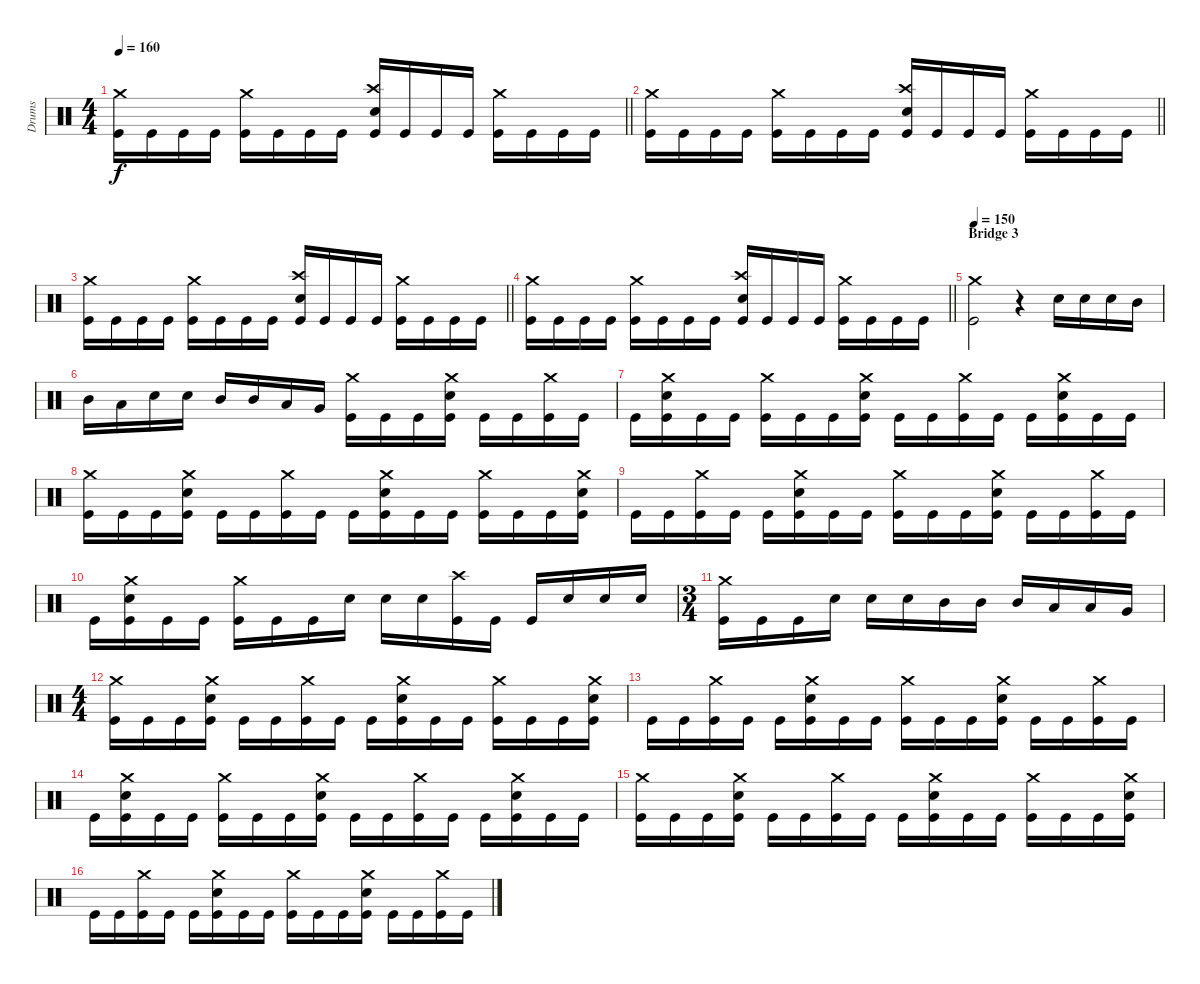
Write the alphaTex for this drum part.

\track ("Drums" "Drums") {instrument percussion}
\staff {score}
\articulation defaults
\ts (4 4)
\tempo 160
\clef neutral
\barLineRight lightlight
\ks c
("Crash medium (hit)" "Kick (hit)").16{dy f} "Kick (hit)".16 "Kick (hit)".16 "Kick (hit)".16 ("Crash medium (hit)" "Kick (hit)").16 "Kick (hit)".16 "Kick (hit)".16 "Kick (hit)".16 ("Crash high (hit)" "Snare (hit) 2" "Kick (hit)").16 "Kick (hit)".16 "Kick (hit)".16 "Kick (hit)".16 ("Crash medium (hit)" "Kick (hit)").16 "Kick (hit)".16 "Kick (hit)".16 "Kick (hit)".16 |
\barLineRight lightlight
("Crash medium (hit)" "Kick (hit)").16 "Kick (hit)".16 "Kick (hit)".16 "Kick (hit)".16 ("Crash medium (hit)" "Kick (hit)").16 "Kick (hit)".16 "Kick (hit)".16 "Kick (hit)".16 ("Crash high (hit)" "Snare (hit) 2" "Kick (hit)").16 "Kick (hit)".16 "Kick (hit)".16 "Kick (hit)".16 ("Crash medium (hit)" "Kick (hit)").16 "Kick (hit)".16 "Kick (hit)".16 "Kick (hit)".16 |
\barLineRight lightlight
("Crash medium (hit)" "Kick (hit)").16 "Kick (hit)".16 "Kick (hit)".16 "Kick (hit)".16 ("Crash medium (hit)" "Kick (hit)").16 "Kick (hit)".16 "Kick (hit)".16 "Kick (hit)".16 ("Crash high (hit)" "Snare (hit) 2" "Kick (hit)").16 "Kick (hit)".16 "Kick (hit)".16 "Kick (hit)".16 ("Crash medium (hit)" "Kick (hit)").16 "Kick (hit)".16 "Kick (hit)".16 "Kick (hit)".16 |
\barLineRight lightlight
("Crash medium (hit)" "Kick (hit)").16 "Kick (hit)".16 "Kick (hit)".16 "Kick (hit)".16 ("Crash medium (hit)" "Kick (hit)").16 "Kick (hit)".16 "Kick (hit)".16 "Kick (hit)".16 ("Crash high (hit)" "Snare (hit) 2" "Kick (hit)").16 "Kick (hit)".16 "Kick (hit)".16 "Kick (hit)".16 ("Crash medium (hit)" "Kick (hit)").16 "Kick (hit)".16 "Kick (hit)".16 "Kick (hit)".16 |
\section ("" "Bridge 3")
\tempo 150
("Crash medium (hit)" "Kick (hit)").2 r.4 "Snare (hit) 2".16 "Snare (hit) 2".16 "Snare (hit) 2".16 "Mid Tom (hit)".16 |
"Mid Tom (hit)".16 "Low Tom (hit)".16 "Snare (hit) 2".16 "Snare (hit) 2".16 "Mid Tom (hit)".16 "Mid Tom (hit)".16 "Low Tom (hit)".16 "Very Low Tom (hit)".16 ("Crash medium (hit)" "Kick (hit)").16 "Kick (hit)".16 "Kick (hit)".16 ("Crash medium (hit)" "Snare (hit) 2" "Kick (hit)").16 "Kick (hit)".16 "Kick (hit)".16 ("Crash medium (hit)" "Kick (hit)").16 "Kick (hit)".16 |
"Kick (hit)".16 ("Crash medium (hit)" "Snare (hit) 2" "Kick (hit)").16 "Kick (hit)".16 "Kick (hit)".16 ("Crash medium (hit)" "Kick (hit)").16 "Kick (hit)".16 "Kick (hit)".16 ("Crash medium (hit)" "Snare (hit) 2" "Kick (hit)").16 "Kick (hit)".16 "Kick (hit)".16 ("Crash medium (hit)" "Kick (hit)").16 "Kick (hit)".16 "Kick (hit)".16 ("Crash medium (hit)" "Snare (hit) 2" "Kick (hit)").16 "Kick (hit)".16 "Kick (hit)".16 |
("Crash medium (hit)" "Kick (hit)").16 "Kick (hit)".16 "Kick (hit)".16 ("Crash medium (hit)" "Snare (hit) 2" "Kick (hit)").16 "Kick (hit)".16 "Kick (hit)".16 ("Crash medium (hit)" "Kick (hit)").16 "Kick (hit)".16 "Kick (hit)".16 ("Crash medium (hit)" "Snare (hit) 2" "Kick (hit)").16 "Kick (hit)".16 "Kick (hit)".16 ("Crash medium (hit)" "Kick (hit)").16 "Kick (hit)".16 "Kick (hit)".16 ("Crash medium (hit)" "Snare (hit) 2" "Kick (hit)").16 |
"Kick (hit)".16 "Kick (hit)".16 ("Crash medium (hit)" "Kick (hit)").16 "Kick (hit)".16 "Kick (hit)".16 ("Crash medium (hit)" "Snare (hit) 2" "Kick (hit)").16 "Kick (hit)".16 "Kick (hit)".16 ("Crash medium (hit)" "Kick (hit)").16 "Kick (hit)".16 "Kick (hit)".16 ("Crash medium (hit)" "Snare (hit) 2" "Kick (hit)").16 "Kick (hit)".16 "Kick (hit)".16 ("Crash medium (hit)" "Kick (hit)").16 "Kick (hit)".16 |
"Kick (hit)".16 ("Crash medium (hit)" "Snare (hit) 2" "Kick (hit)").16 "Kick (hit)".16 "Kick (hit)".16 ("Crash medium (hit)" "Kick (hit)").16 "Kick (hit)".16 "Kick (hit)".16 "Snare (hit) 2".16 "Snare (hit) 2".16 "Snare (hit) 2".16 ("Crash high (hit)" "Kick (hit)").16 "Kick (hit)".16 "Kick (hit)".16 "Snare (hit) 2".16 "Snare (hit) 2".16 "Snare (hit) 2".16 |
\ts (3 4)
("Crash medium (hit)" "Kick (hit)").16 "Kick (hit)".16 "Kick (hit)".16 "Snare (hit) 2".16 "Snare (hit) 2".16 "Snare (hit) 2".16 "Mid Tom (hit)".16 "Mid Tom (hit)".16 "Mid Tom (hit)".16 "Low Tom (hit)".16 "Low Tom (hit)".16 "Very Low Tom (hit)".16 |
\ts (4 4)
("Crash medium (hit)" "Kick (hit)").16 "Kick (hit)".16 "Kick (hit)".16 ("Crash medium (hit)" "Snare (hit) 2" "Kick (hit)").16 "Kick (hit)".16 "Kick (hit)".16 ("Crash medium (hit)" "Kick (hit)").16 "Kick (hit)".16 "Kick (hit)".16 ("Crash medium (hit)" "Snare (hit) 2" "Kick (hit)").16 "Kick (hit)".16 "Kick (hit)".16 ("Crash medium (hit)" "Kick (hit)").16 "Kick (hit)".16 "Kick (hit)".16 ("Crash medium (hit)" "Snare (hit) 2" "Kick (hit)").16 |
"Kick (hit)".16 "Kick (hit)".16 ("Crash medium (hit)" "Kick (hit)").16 "Kick (hit)".16 "Kick (hit)".16 ("Crash medium (hit)" "Snare (hit) 2" "Kick (hit)").16 "Kick (hit)".16 "Kick (hit)".16 ("Crash medium (hit)" "Kick (hit)").16 "Kick (hit)".16 "Kick (hit)".16 ("Crash medium (hit)" "Snare (hit) 2" "Kick (hit)").16 "Kick (hit)".16 "Kick (hit)".16 ("Crash medium (hit)" "Kick (hit)").16 "Kick (hit)".16 |
"Kick (hit)".16 ("Crash medium (hit)" "Snare (hit) 2" "Kick (hit)").16 "Kick (hit)".16 "Kick (hit)".16 ("Crash medium (hit)" "Kick (hit)").16 "Kick (hit)".16 "Kick (hit)".16 ("Crash medium (hit)" "Snare (hit) 2" "Kick (hit)").16 "Kick (hit)".16 "Kick (hit)".16 ("Crash medium (hit)" "Kick (hit)").16 "Kick (hit)".16 "Kick (hit)".16 ("Crash medium (hit)" "Snare (hit) 2" "Kick (hit)").16 "Kick (hit)".16 "Kick (hit)".16 |
("Crash medium (hit)" "Kick (hit)").16 "Kick (hit)".16 "Kick (hit)".16 ("Crash medium (hit)" "Snare (hit) 2" "Kick (hit)").16 "Kick (hit)".16 "Kick (hit)".16 ("Crash medium (hit)" "Kick (hit)").16 "Kick (hit)".16 "Kick (hit)".16 ("Crash medium (hit)" "Snare (hit) 2" "Kick (hit)").16 "Kick (hit)".16 "Kick (hit)".16 ("Crash medium (hit)" "Kick (hit)").16 "Kick (hit)".16 "Kick (hit)".16 ("Crash medium (hit)" "Snare (hit) 2" "Kick (hit)").16 |
"Kick (hit)".16 "Kick (hit)".16 ("Crash medium (hit)" "Kick (hit)").16 "Kick (hit)".16 "Kick (hit)".16 ("Crash medium (hit)" "Snare (hit) 2" "Kick (hit)").16 "Kick (hit)".16 "Kick (hit)".16 ("Crash medium (hit)" "Kick (hit)").16 "Kick (hit)".16 "Kick (hit)".16 ("Crash medium (hit)" "Snare (hit) 2" "Kick (hit)").16 "Kick (hit)".16 "Kick (hit)".16 ("Crash medium (hit)" "Kick (hit)").16 "Kick (hit)".16
